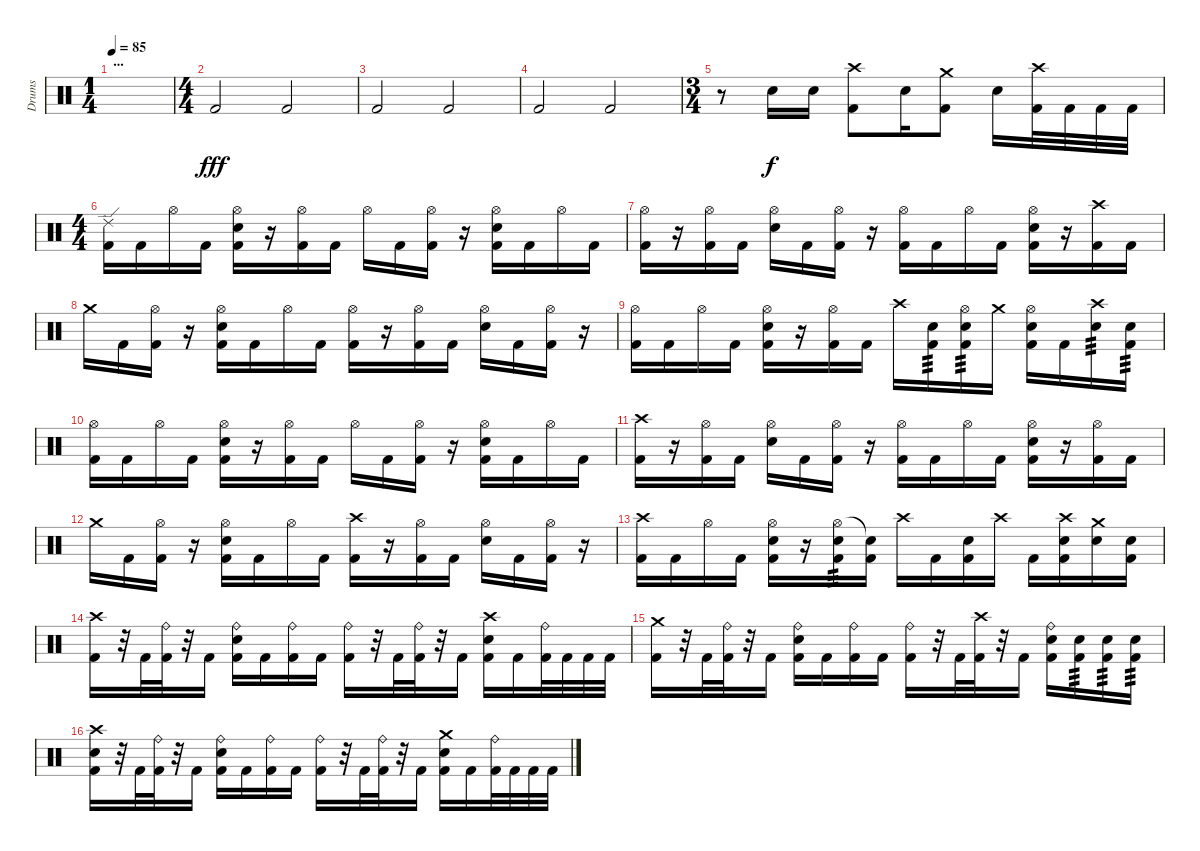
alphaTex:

\track ("Drums" "Drums") {instrument percussion}
\staff {score}
\articulation defaults
\ts (1 4)
\section ("" "...")
\tempo 85
\clef neutral
\ks c
|
\ts (4 4)
"Kick (hit) 2".2{dy fff} "Kick (hit) 2".2 |
"Kick (hit) 2".2 "Kick (hit) 2".2 |
"Kick (hit) 2".2 "Kick (hit) 2".2 |
\ts (3 4)
r.8 "Snare (hit) 2".16{dy f} "Snare (hit) 2".16 ("Crash high (hit)" "Kick (hit) 2").8 "Snare (hit) 2".16 ("Crash medium (hit)" "Kick (hit) 2").8 "Snare (hit) 2".16 ("Crash high (hit)" "Kick (hit) 2").32 "Kick (hit) 2".32 "Kick (hit) 2".32 "Kick (hit) 2".32 |
\ts (4 4)
("Ride (edge) 2" "Kick (hit) 2").16 "Kick (hit) 2".16 "Hi-Hat (open)".16 "Kick (hit) 2".16 ("Hi-Hat (open)" "Snare (hit) 2" "Kick (hit) 2").16 r.16 ("Hi-Hat (open)" "Kick (hit) 2").16 "Kick (hit) 2".16 "Hi-Hat (open)".16 "Kick (hit) 2".16 ("Hi-Hat (open)" "Kick (hit) 2").16 r.16 ("Hi-Hat (open)" "Snare (hit) 2" "Kick (hit) 2").16 "Kick (hit) 2".16 "Hi-Hat (open)".16 "Kick (hit) 2".16 |
("Hi-Hat (open)" "Kick (hit) 2").16 r.16 ("Hi-Hat (open)" "Kick (hit) 2").16 "Kick (hit) 2".16 ("Hi-Hat (open)" "Snare (hit) 2").16 "Kick (hit) 2".16 ("Hi-Hat (open)" "Kick (hit) 2").16 r.16 ("Hi-Hat (open)" "Kick (hit) 2").16 "Kick (hit) 2".16 "Hi-Hat (open)".16 "Kick (hit) 2".16 ("Hi-Hat (open)" "Snare (hit) 2" "Kick (hit) 2").16 r.16 ("Crash high (hit)" "Kick (hit) 2").16 "Kick (hit) 2".16 |
"Crash medium (hit)".16 "Kick (hit) 2".16 ("Hi-Hat (open)" "Kick (hit) 2").16 r.16 ("Hi-Hat (open)" "Snare (hit) 2" "Kick (hit) 2").16 "Kick (hit) 2".16 "Hi-Hat (open)".16 "Kick (hit) 2".16 ("Hi-Hat (open)" "Kick (hit) 2").16 r.16 ("Hi-Hat (open)" "Kick (hit) 2").16 "Kick (hit) 2".16 ("Hi-Hat (open)" "Snare (hit) 2").16 "Kick (hit) 2".16 ("Hi-Hat (open)" "Kick (hit) 2").16 r.16 |
("Hi-Hat (open)" "Kick (hit) 2").16 "Kick (hit) 2".16 "Hi-Hat (open)".16 "Kick (hit) 2".16 ("Hi-Hat (open)" "Snare (hit) 2" "Kick (hit) 2").16 r.16 ("Hi-Hat (open)" "Kick (hit) 2").16 "Kick (hit) 2".16 "Crash high (hit)".16 ("Snare (hit) 2" "Kick (hit) 2").16{tp 3} ("Hi-Hat (open)" "Snare (hit) 2" "Kick (hit) 2").16{tp 3} "Crash medium (hit)".16 ("Hi-Hat (open)" "Snare (hit) 2" "Kick (hit) 2").16 "Kick (hit) 2".16 ("Crash high (hit)" "Snare (hit) 2").16{tp 3} ("Snare (hit) 2" "Kick (hit) 2").16{tp 3} |
("Hi-Hat (open)" "Kick (hit) 2").16 "Kick (hit) 2".16 "Hi-Hat (open)".16 "Kick (hit) 2".16 ("Hi-Hat (open)" "Snare (hit) 2" "Kick (hit) 2").16 r.16 ("Hi-Hat (open)" "Kick (hit) 2").16 "Kick (hit) 2".16 "Hi-Hat (open)".16 "Kick (hit) 2".16 ("Hi-Hat (open)" "Kick (hit) 2").16 r.16 ("Hi-Hat (open)" "Snare (hit) 2" "Kick (hit) 2").16 "Kick (hit) 2".16 "Hi-Hat (open)".16 "Kick (hit) 2".16 |
("Crash high (hit)" "Kick (hit) 2").16 r.16 ("Hi-Hat (open)" "Kick (hit) 2").16 "Kick (hit) 2".16 ("Hi-Hat (open)" "Snare (hit) 2").16 "Kick (hit) 2".16 ("Hi-Hat (open)" "Kick (hit) 2").16 r.16 ("Hi-Hat (open)" "Kick (hit) 2").16 "Kick (hit) 2".16 "Hi-Hat (open)".16 "Kick (hit) 2".16 ("Hi-Hat (open)" "Snare (hit) 2" "Kick (hit) 2").16 r.16 ("Hi-Hat (open)" "Kick (hit) 2").16 "Kick (hit) 2".16 |
"Crash medium (hit)".16 "Kick (hit) 2".16 ("Hi-Hat (open)" "Kick (hit) 2").16 r.16 ("Hi-Hat (open)" "Snare (hit) 2" "Kick (hit) 2").16 "Kick (hit) 2".16 "Hi-Hat (open)".16 "Kick (hit) 2".16 ("Crash high (hit)" "Kick (hit) 2").16 r.16 ("Hi-Hat (open)" "Kick (hit) 2").16 "Kick (hit) 2".16 ("Hi-Hat (open)" "Snare (hit) 2").16 "Kick (hit) 2".16 ("Hi-Hat (open)" "Kick (hit) 2").16 r.16 |
("Crash high (hit)" "Kick (hit) 2").16 "Kick (hit) 2".16 "Hi-Hat (open)".16 "Kick (hit) 2".16 ("Hi-Hat (open)" "Snare (hit) 2" "Kick (hit) 2").16 r.16 ("Hi-Hat (open)" "Snare (hit) 2" "Kick (hit) 2").16{tp 3} ("Snare (hit)"{t} "Kick (hit) 2").16 "Crash high (hit)".16 "Kick (hit) 2".16 ("Snare (hit) 2" "Kick (hit) 2").16 "Crash high (hit)".16 "Kick (hit) 2".16 ("Crash high (hit)" "Snare (hit) 2" "Kick (hit) 2").16 ("Crash medium (hit)" "Snare (hit) 2").16 ("Snare (hit) 2" "Kick (hit) 2").16 |
("Crash high (hit)" "Kick (hit) 2").16 r.32 "Kick (hit) 2".32 ("Ride (bell)" "Kick (hit) 2").32 r.32 "Kick (hit) 2".16 ("Ride (bell)" "Snare (hit) 2" "Kick (hit) 2").16 "Kick (hit) 2".16 ("Ride (bell)" "Kick (hit) 2").16 "Kick (hit) 2".16 ("Ride (bell)" "Kick (hit) 2").16 r.32 "Kick (hit) 2".32 ("Ride (bell)" "Kick (hit) 2").32 r.32 "Kick (hit) 2".16 ("Crash high (hit)" "Snare (hit) 2" "Kick (hit) 2").16 "Kick (hit) 2".16 ("Ride (bell)" "Kick (hit) 2").32 "Kick (hit) 2".32 "Kick (hit) 2".32 "Kick (hit) 2".32 |
("Crash medium (hit)" "Kick (hit) 2").16 r.32 "Kick (hit) 2".32 ("Ride (bell)" "Kick (hit) 2").32 r.32 "Kick (hit) 2".16 ("Ride (bell)" "Snare (hit) 2" "Kick (hit) 2").16 "Kick (hit) 2".16 ("Ride (bell)" "Kick (hit) 2").16 "Kick (hit) 2".16 ("Ride (bell)" "Kick (hit) 2").16 r.32 "Kick (hit) 2".32 ("Crash high (hit)" "Kick (hit) 2").32 r.32 "Kick (hit) 2".16 ("Ride (bell)" "Snare (hit) 2" "Kick (hit) 2").16 ("Snare (hit) 2" "Kick (hit) 2").16{tp 3} ("Snare (hit) 2" "Kick (hit) 2").16{tp 3} ("Snare (hit) 2" "Kick (hit) 2").16{tp 3} |
("Crash high (hit)" "Snare (hit) 2" "Kick (hit) 2").16 r.32 "Kick (hit) 2".32 ("Ride (bell)" "Kick (hit) 2").32 r.32 "Kick (hit) 2".16 ("Ride (bell)" "Snare (hit) 2" "Kick (hit) 2").16 "Kick (hit) 2".16 ("Ride (bell)" "Kick (hit) 2").16 "Kick (hit) 2".16 ("Ride (bell)" "Kick (hit) 2").16 r.32 "Kick (hit) 2".32 ("Ride (bell)" "Kick (hit) 2").32 r.32 "Kick (hit) 2".16 ("Crash medium (hit)" "Snare (hit) 2" "Kick (hit) 2").16 "Kick (hit) 2".16 ("Ride (bell)" "Kick (hit) 2").32 "Kick (hit) 2".32 "Kick (hit) 2".32 "Kick (hit) 2".32
